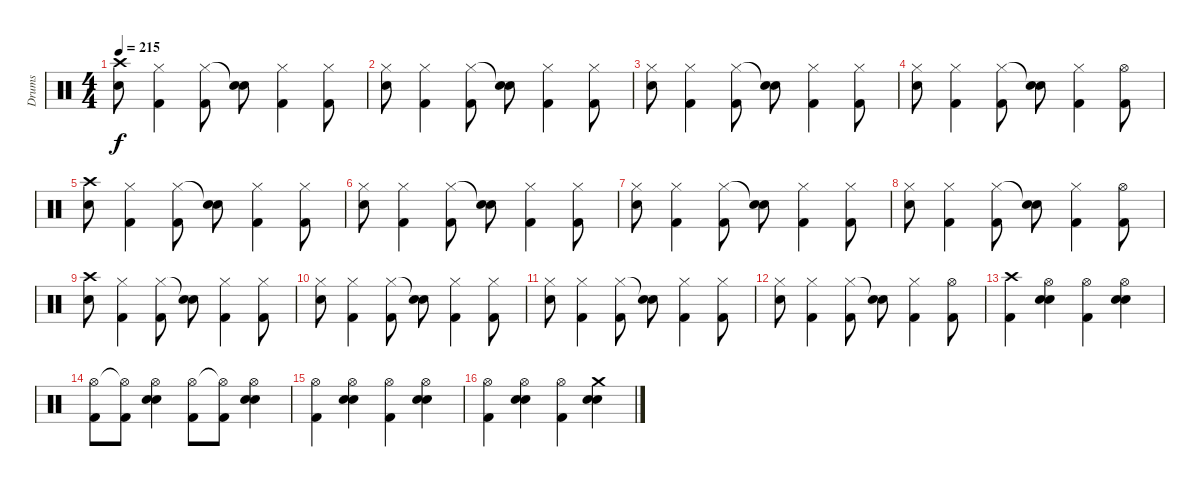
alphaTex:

\track ("Drums" "Drums") {instrument percussion}
\staff {score}
\articulation defaults
\ts (4 4)
\tempo 215
\clef neutral
\ks c
("Crash high (hit)" "Electric Snare (hit)").8{dy f} ("Hi-Hat (closed)" "Kick (hit) 2").4 ("Hi-Hat (closed)" "Kick (hit) 2").8 ("Snare (hit)"{t} "Electric Snare (hit)").8 ("Hi-Hat (closed)" "Kick (hit) 2").4 ("Hi-Hat (closed)" "Kick (hit) 2").8 |
("Hi-Hat (closed)" "Electric Snare (hit)").8 ("Hi-Hat (closed)" "Kick (hit) 2").4 ("Hi-Hat (closed)" "Kick (hit) 2").8 ("Snare (hit)"{t} "Electric Snare (hit)").8 ("Hi-Hat (closed)" "Kick (hit) 2").4 ("Hi-Hat (closed)" "Kick (hit) 2").8 |
("Hi-Hat (closed)" "Electric Snare (hit)").8 ("Hi-Hat (closed)" "Kick (hit) 2").4 ("Hi-Hat (closed)" "Kick (hit) 2").8 ("Snare (hit)"{t} "Electric Snare (hit)").8 ("Hi-Hat (closed)" "Kick (hit) 2").4 ("Hi-Hat (closed)" "Kick (hit) 2").8 |
("Hi-Hat (closed)" "Electric Snare (hit)").8 ("Hi-Hat (closed)" "Kick (hit) 2").4 ("Hi-Hat (closed)" "Kick (hit) 2").8 ("Snare (hit)"{t} "Electric Snare (hit)").8 ("Hi-Hat (closed)" "Kick (hit) 2").4 ("Hi-Hat (open)" "Kick (hit) 2").8 |
("Crash high (hit)" "Electric Snare (hit)").8 ("Hi-Hat (closed)" "Kick (hit) 2").4 ("Hi-Hat (closed)" "Kick (hit) 2").8 ("Snare (hit)"{t} "Electric Snare (hit)").8 ("Hi-Hat (closed)" "Kick (hit) 2").4 ("Hi-Hat (closed)" "Kick (hit) 2").8 |
("Hi-Hat (closed)" "Electric Snare (hit)").8 ("Hi-Hat (closed)" "Kick (hit) 2").4 ("Hi-Hat (closed)" "Kick (hit) 2").8 ("Snare (hit)"{t} "Electric Snare (hit)").8 ("Hi-Hat (closed)" "Kick (hit) 2").4 ("Hi-Hat (closed)" "Kick (hit) 2").8 |
("Hi-Hat (closed)" "Electric Snare (hit)").8 ("Hi-Hat (closed)" "Kick (hit) 2").4 ("Hi-Hat (closed)" "Kick (hit) 2").8 ("Snare (hit)"{t} "Electric Snare (hit)").8 ("Hi-Hat (closed)" "Kick (hit) 2").4 ("Hi-Hat (closed)" "Kick (hit) 2").8 |
("Hi-Hat (closed)" "Electric Snare (hit)").8 ("Hi-Hat (closed)" "Kick (hit) 2").4 ("Hi-Hat (closed)" "Kick (hit) 2").8 ("Snare (hit)"{t} "Electric Snare (hit)").8 ("Hi-Hat (closed)" "Kick (hit) 2").4 ("Hi-Hat (open)" "Kick (hit) 2").8 |
("Crash high (hit)" "Electric Snare (hit)").8 ("Hi-Hat (closed)" "Kick (hit) 2").4 ("Hi-Hat (closed)" "Kick (hit) 2").8 ("Snare (hit)"{t} "Electric Snare (hit)").8 ("Hi-Hat (closed)" "Kick (hit) 2").4 ("Hi-Hat (closed)" "Kick (hit) 2").8 |
("Hi-Hat (closed)" "Electric Snare (hit)").8 ("Hi-Hat (closed)" "Kick (hit) 2").4 ("Hi-Hat (closed)" "Kick (hit) 2").8 ("Snare (hit)"{t} "Electric Snare (hit)").8 ("Hi-Hat (closed)" "Kick (hit) 2").4 ("Hi-Hat (closed)" "Kick (hit) 2").8 |
("Hi-Hat (closed)" "Electric Snare (hit)").8 ("Hi-Hat (closed)" "Kick (hit) 2").4 ("Hi-Hat (closed)" "Kick (hit) 2").8 ("Snare (hit)"{t} "Electric Snare (hit)").8 ("Hi-Hat (closed)" "Kick (hit) 2").4 ("Hi-Hat (closed)" "Kick (hit) 2").8 |
("Hi-Hat (closed)" "Electric Snare (hit)").8 ("Hi-Hat (closed)" "Kick (hit) 2").4 ("Hi-Hat (closed)" "Kick (hit) 2").8 ("Snare (hit)"{t} "Electric Snare (hit)").8 ("Hi-Hat (closed)" "Kick (hit) 2").4 ("Hi-Hat (open)" "Kick (hit) 2").8 |
("Crash high (hit)" "Kick (hit) 2").4 ("Hi-Hat (open)" "Electric Snare (hit)" "Electric Snare (hit)").4 ("Hi-Hat (open)" "Kick (hit) 2").4 ("Hi-Hat (open)" "Electric Snare (hit)" "Electric Snare (hit)").4 |
("Hi-Hat (open)" "Kick (hit) 2").8 ("Hi-Hat (open)"{t} "Kick (hit) 2").8 ("Hi-Hat (open)" "Electric Snare (hit)" "Electric Snare (hit)").4 ("Hi-Hat (open)" "Kick (hit) 2").8 ("Hi-Hat (open)"{t} "Kick (hit) 2").8 ("Hi-Hat (open)" "Electric Snare (hit)" "Electric Snare (hit)").4 |
("Hi-Hat (open)" "Kick (hit) 2").4 ("Hi-Hat (open)" "Electric Snare (hit)" "Electric Snare (hit)").4 ("Hi-Hat (open)" "Kick (hit) 2").4 ("Hi-Hat (open)" "Electric Snare (hit)" "Electric Snare (hit)").4 |
("Hi-Hat (open)" "Kick (hit) 2").4 ("Hi-Hat (open)" "Electric Snare (hit)" "Electric Snare (hit)").4 ("Hi-Hat (open)" "Kick (hit) 2").4 ("Crash medium (hit)" "Electric Snare (hit)" "Electric Snare (hit)").4
